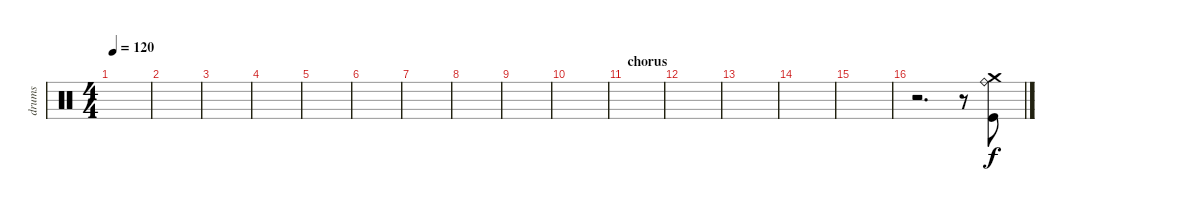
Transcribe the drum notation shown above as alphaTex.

\track ("drums" "drums") {instrument percussion}
\staff {score}
\articulation defaults
\ts (4 4)
\tempo 120
\clef neutral
\ks c
|
|
\section ("" "")
|
|
|
|
|
|
|
|
\section ("" "chorus")
|
|
|
|
|
r.2{d} r.8 ("Kick (hit)" "Ride (bell)" "Crash medium (hit)").8
